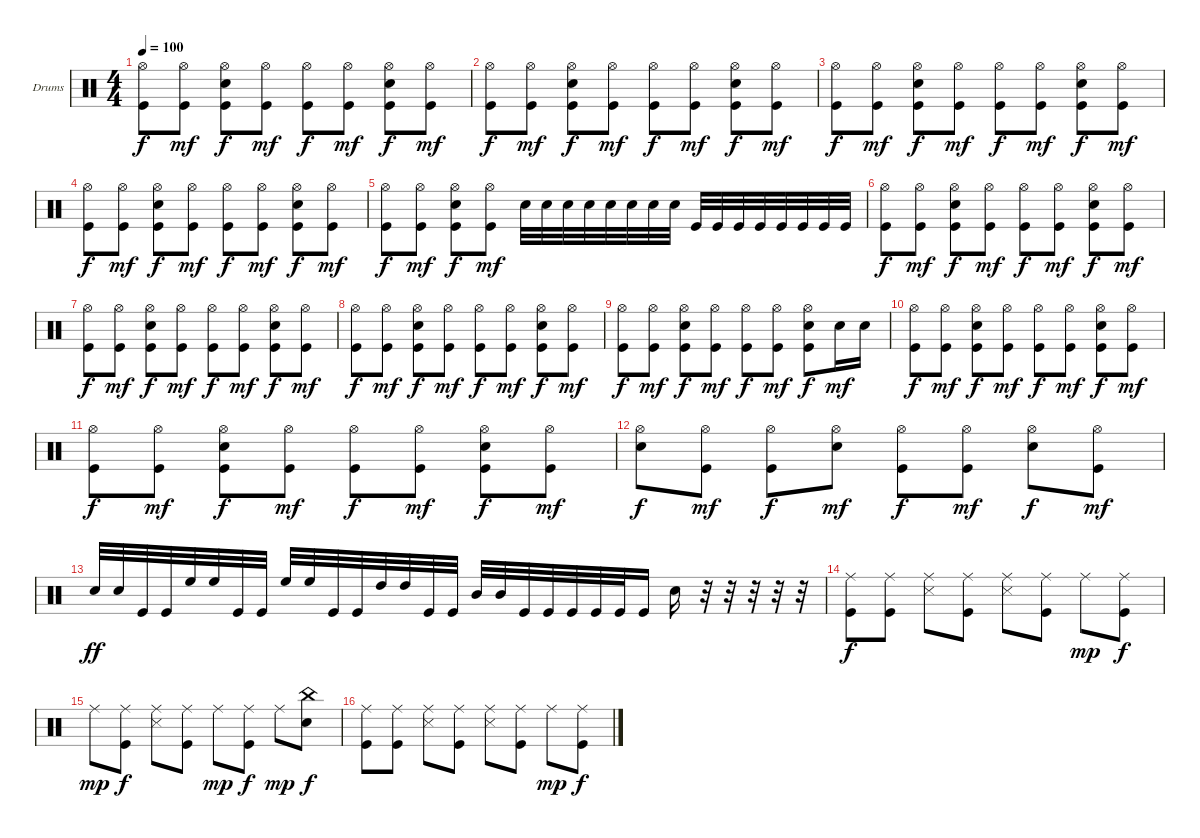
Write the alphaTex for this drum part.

\bracketExtendMode groupsimilarinstruments
\firstSystemTrackNameOrientation horizontal
\otherSystemsTrackNameOrientation horizontal
\track ("Drumkit" "Drums") {instrument percussion}
\staff {score}
\articulation defaults
\ts (4 4)
\tempo 100
\clef neutral
\ks c
("Hi-Hat (open)" "Kick (hit)").8{dy f} ("Hi-Hat (open)" "Kick (hit)").8{dy mf} ("Hi-Hat (open)" "Kick (hit)" "Snare (hit) 2").8{dy f} ("Hi-Hat (open)" "Kick (hit)").8{dy mf} ("Hi-Hat (open)" "Kick (hit)").8{dy f} ("Hi-Hat (open)" "Kick (hit)").8{dy mf} ("Hi-Hat (open)" "Kick (hit)" "Snare (hit) 2").8{dy f} ("Hi-Hat (open)" "Kick (hit)").8{dy mf} |
("Hi-Hat (open)" "Kick (hit)").8{dy f} ("Hi-Hat (open)" "Kick (hit)").8{dy mf} ("Hi-Hat (open)" "Kick (hit)" "Snare (hit) 2").8{dy f} ("Hi-Hat (open)" "Kick (hit)").8{dy mf} ("Hi-Hat (open)" "Kick (hit)").8{dy f} ("Hi-Hat (open)" "Kick (hit)").8{dy mf} ("Hi-Hat (open)" "Kick (hit)" "Snare (hit) 2").8{dy f} ("Hi-Hat (open)" "Kick (hit)").8{dy mf} |
("Hi-Hat (open)" "Kick (hit)").8{dy f} ("Hi-Hat (open)" "Kick (hit)").8{dy mf} ("Hi-Hat (open)" "Kick (hit)" "Snare (hit) 2").8{dy f} ("Hi-Hat (open)" "Kick (hit)").8{dy mf} ("Hi-Hat (open)" "Kick (hit)").8{dy f} ("Hi-Hat (open)" "Kick (hit)").8{dy mf} ("Hi-Hat (open)" "Kick (hit)" "Snare (hit) 2").8{dy f} ("Hi-Hat (open)" "Kick (hit)").8{dy mf} |
("Hi-Hat (open)" "Kick (hit)").8{dy f} ("Hi-Hat (open)" "Kick (hit)").8{dy mf} ("Hi-Hat (open)" "Kick (hit)" "Snare (hit) 2").8{dy f} ("Hi-Hat (open)" "Kick (hit)").8{dy mf} ("Hi-Hat (open)" "Kick (hit)").8{dy f} ("Hi-Hat (open)" "Kick (hit)").8{dy mf} ("Hi-Hat (open)" "Kick (hit)" "Snare (hit) 2").8{dy f} ("Hi-Hat (open)" "Kick (hit)").8{dy mf} |
("Hi-Hat (open)" "Kick (hit)").8{dy f} ("Hi-Hat (open)" "Kick (hit)").8{dy mf} ("Hi-Hat (open)" "Kick (hit)" "Snare (hit) 2").8{dy f} ("Hi-Hat (open)" "Kick (hit)").8{dy mf} "Snare (hit) 2".32 "Snare (hit) 2".32 "Snare (hit) 2".32 "Snare (hit) 2".32 "Snare (hit) 2".32 "Snare (hit) 2".32 "Snare (hit) 2".32 "Snare (hit) 2".32 "Kick (hit)".32 "Kick (hit)".32 "Kick (hit)".32 "Kick (hit)".32 "Kick (hit)".32 "Kick (hit)".32 "Kick (hit)".32 "Kick (hit)".32 |
("Hi-Hat (open)" "Kick (hit)").8{dy f} ("Hi-Hat (open)" "Kick (hit)").8{dy mf} ("Hi-Hat (open)" "Kick (hit)" "Snare (hit) 2").8{dy f} ("Hi-Hat (open)" "Kick (hit)").8{dy mf} ("Hi-Hat (open)" "Kick (hit)").8{dy f} ("Hi-Hat (open)" "Kick (hit)").8{dy mf} ("Hi-Hat (open)" "Kick (hit)" "Snare (hit) 2").8{dy f} ("Hi-Hat (open)" "Kick (hit)").8{dy mf} |
("Hi-Hat (open)" "Kick (hit)").8{dy f} ("Hi-Hat (open)" "Kick (hit)").8{dy mf} ("Hi-Hat (open)" "Kick (hit)" "Snare (hit) 2").8{dy f} ("Hi-Hat (open)" "Kick (hit)").8{dy mf} ("Hi-Hat (open)" "Kick (hit)").8{dy f} ("Hi-Hat (open)" "Kick (hit)").8{dy mf} ("Hi-Hat (open)" "Kick (hit)" "Snare (hit) 2").8{dy f} ("Hi-Hat (open)" "Kick (hit)").8{dy mf} |
("Hi-Hat (open)" "Kick (hit)").8{dy f} ("Hi-Hat (open)" "Kick (hit)").8{dy mf} ("Hi-Hat (open)" "Kick (hit)" "Snare (hit) 2").8{dy f} ("Hi-Hat (open)" "Kick (hit)").8{dy mf} ("Hi-Hat (open)" "Kick (hit)").8{dy f} ("Hi-Hat (open)" "Kick (hit)").8{dy mf} ("Hi-Hat (open)" "Kick (hit)" "Snare (hit) 2").8{dy f} ("Hi-Hat (open)" "Kick (hit)").8{dy mf} |
("Hi-Hat (open)" "Kick (hit)").8{dy f} ("Hi-Hat (open)" "Kick (hit)").8{dy mf} ("Hi-Hat (open)" "Kick (hit)" "Snare (hit) 2").8{dy f} ("Hi-Hat (open)" "Kick (hit)").8{dy mf} ("Hi-Hat (open)" "Kick (hit)").8{dy f} ("Hi-Hat (open)" "Kick (hit)").8{dy mf} ("Hi-Hat (open)" "Kick (hit)" "Snare (hit) 2").8{dy f} "Snare (hit) 2".16{dy mf} "Snare (hit) 2".16 |
("Hi-Hat (open)" "Kick (hit)").8{dy f} ("Hi-Hat (open)" "Kick (hit)").8{dy mf} ("Hi-Hat (open)" "Kick (hit)" "Snare (hit) 2").8{dy f} ("Hi-Hat (open)" "Kick (hit)").8{dy mf} ("Hi-Hat (open)" "Kick (hit)").8{dy f} ("Hi-Hat (open)" "Kick (hit)").8{dy mf} ("Hi-Hat (open)" "Kick (hit)" "Snare (hit) 2").8{dy f} ("Hi-Hat (open)" "Kick (hit)").8{dy mf} |
("Hi-Hat (open)" "Kick (hit)").8{dy f} ("Hi-Hat (open)" "Kick (hit)").8{dy mf} ("Hi-Hat (open)" "Kick (hit)" "Snare (hit) 2").8{dy f} ("Hi-Hat (open)" "Kick (hit)").8{dy mf} ("Hi-Hat (open)" "Kick (hit)").8{dy f} ("Hi-Hat (open)" "Kick (hit)").8{dy mf} ("Hi-Hat (open)" "Kick (hit)" "Snare (hit) 2").8{dy f} ("Hi-Hat (open)" "Kick (hit)").8{dy mf} |
("Hi-Hat (open)" "Snare (hit) 2").8{dy f} ("Hi-Hat (open)" "Kick (hit)").8{dy mf} ("Hi-Hat (open)" "Kick (hit)").8{dy f} ("Hi-Hat (open)" "Snare (hit) 2").8{dy mf} ("Hi-Hat (open)" "Kick (hit)").8{dy f} ("Hi-Hat (open)" "Kick (hit)").8{dy mf} ("Hi-Hat (open)" "Snare (hit) 2").8{dy f} ("Hi-Hat (open)" "Kick (hit)").8{dy mf} |
"Snare (hit) 2".32{dy ff} "Snare (hit) 2".32 "Kick (hit)".32 "Kick (hit)".32 "High Floor Tom (hit)".32 "High Floor Tom (hit)".32 "Kick (hit)".32 "Kick (hit)".32 "High Floor Tom (hit)".32 "High Floor Tom (hit)".32 "Kick (hit)".32 "Kick (hit)".32 "High Tom (hit)".32 "High Tom (hit)".32 "Kick (hit)".32 "Kick (hit)".32 "Mid Tom (hit)".32 "Mid Tom (hit)".32 "Kick (hit)".32 "Kick (hit)".32 "Kick (hit)".32 "Kick (hit)".32 "Kick (hit)".32 "Kick (hit)".16 "Snare (hit) 2".16 r.32 r.32 r.32 r.32 r.32 |
("Kick (hit)" "Ride (middle)").8{dy f} ("Kick (hit)" "Ride (middle)").8 ("Snare (side stick) 3" "Ride (middle)").8 ("Kick (hit)" "Ride (middle)").8 ("Snare (side stick) 3" "Ride (middle)").8 ("Kick (hit)" "Ride (middle)").8 "Ride (middle)".8{dy mp} ("Kick (hit)" "Ride (middle)").8{dy f} |
"Ride (middle)".8{dy mp} ("Kick (hit)" "Ride (middle)").8{dy f} ("Snare (side stick) 3" "Ride (middle)").8 ("Kick (hit)" "Ride (middle)").8 "Ride (middle)".8{dy mp} ("Kick (hit)" "Ride (middle)").8{dy f} "Ride (middle)".8{dy mp} ("Snare (hit) 2" "China (hit)").8{dy f} |
("Kick (hit)" "Ride (middle)").8 ("Kick (hit)" "Ride (middle)").8 ("Snare (side stick) 3" "Ride (middle)").8 ("Kick (hit)" "Ride (middle)").8 ("Snare (side stick) 3" "Ride (middle)").8 ("Kick (hit)" "Ride (middle)").8 "Ride (middle)".8{dy mp} ("Kick (hit)" "Ride (middle)").8{dy f}
